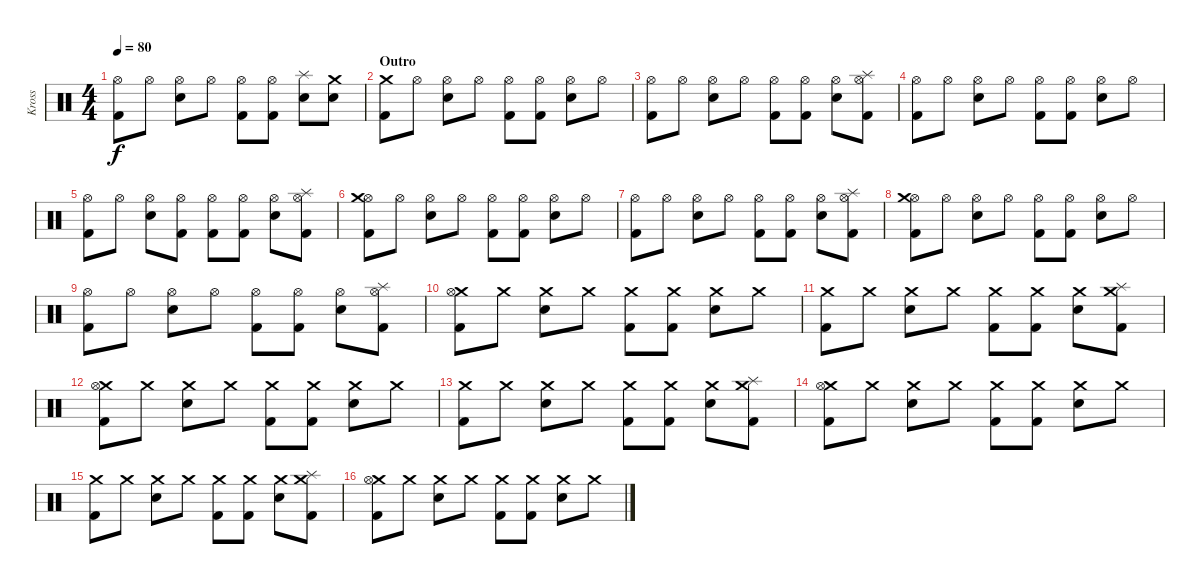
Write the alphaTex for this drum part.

\track ("Kross" "Kross") {instrument percussion}
\staff {score}
\articulation defaults
\ts (4 4)
\tempo 80
\clef neutral
\ks c
("Hi-Hat (open)" "Kick (hit) 2").8{dy f} "Hi-Hat (open)".8 ("Hi-Hat (open)" "Snare (hit) 2").8 "Hi-Hat (open)".8 ("Hi-Hat (open)" "Kick (hit) 2").8 ("Hi-Hat (open)" "Kick (hit) 2").8 ("Splash (hit)" "Snare (hit) 2").8 ("Crash medium (hit)" "Snare (hit) 2").8 |
\section ("" "Outro")
("Crash medium (hit)" "Kick (hit) 2").8 "Hi-Hat (open)".8 ("Hi-Hat (open)" "Snare (hit) 2").8 "Hi-Hat (open)".8 ("Hi-Hat (open)" "Kick (hit) 2").8 ("Hi-Hat (open)" "Kick (hit) 2").8 ("Hi-Hat (open)" "Snare (hit) 2").8 "Hi-Hat (open)".8 |
("Hi-Hat (open)" "Kick (hit) 2").8 "Hi-Hat (open)".8 ("Hi-Hat (open)" "Snare (hit) 2").8 "Hi-Hat (open)".8 ("Hi-Hat (open)" "Kick (hit) 2").8 ("Hi-Hat (open)" "Kick (hit) 2").8 ("Hi-Hat (open)" "Snare (hit) 2").8 ("Hi-Hat (open)" "Splash (hit)" "Kick (hit) 2").8 |
("Hi-Hat (open)" "Kick (hit) 2").8 "Hi-Hat (open)".8 ("Hi-Hat (open)" "Snare (hit) 2").8 "Hi-Hat (open)".8 ("Hi-Hat (open)" "Kick (hit) 2").8 ("Hi-Hat (open)" "Kick (hit) 2").8 ("Hi-Hat (open)" "Snare (hit) 2").8 "Hi-Hat (open)".8 |
("Hi-Hat (open)" "Kick (hit) 2").8 "Hi-Hat (open)".8 ("Hi-Hat (open)" "Snare (hit) 2").8 ("Hi-Hat (open)" "Kick (hit) 2").8 ("Hi-Hat (open)" "Kick (hit) 2").8 ("Hi-Hat (open)" "Kick (hit) 2").8 ("Hi-Hat (open)" "Snare (hit) 2").8 ("Hi-Hat (open)" "Splash (hit)" "Kick (hit) 2").8 |
("Hi-Hat (open)" "Crash medium (hit)" "Kick (hit) 2").8 "Hi-Hat (open)".8 ("Hi-Hat (open)" "Snare (hit) 2").8 "Hi-Hat (open)".8 ("Hi-Hat (open)" "Kick (hit) 2").8 ("Hi-Hat (open)" "Kick (hit) 2").8 ("Hi-Hat (open)" "Snare (hit) 2").8 "Hi-Hat (open)".8 |
("Hi-Hat (open)" "Kick (hit) 2").8 "Hi-Hat (open)".8 ("Hi-Hat (open)" "Snare (hit) 2").8 "Hi-Hat (open)".8 ("Hi-Hat (open)" "Kick (hit) 2").8 ("Hi-Hat (open)" "Kick (hit) 2").8 ("Hi-Hat (open)" "Snare (hit) 2").8 ("Hi-Hat (open)" "Splash (hit)" "Kick (hit) 2").8 |
("Hi-Hat (open)" "Crash medium (hit)" "Kick (hit) 2").8 "Hi-Hat (open)".8 ("Hi-Hat (open)" "Snare (hit) 2").8 "Hi-Hat (open)".8 ("Hi-Hat (open)" "Kick (hit) 2").8 ("Hi-Hat (open)" "Kick (hit) 2").8 ("Hi-Hat (open)" "Snare (hit) 2").8 "Hi-Hat (open)".8 |
("Hi-Hat (open)" "Kick (hit) 2").8 "Hi-Hat (open)".8 ("Hi-Hat (open)" "Snare (hit) 2").8 "Hi-Hat (open)".8 ("Hi-Hat (open)" "Kick (hit) 2").8 ("Hi-Hat (open)" "Kick (hit) 2").8 ("Hi-Hat (open)" "Snare (hit) 2").8 ("Hi-Hat (open)" "Splash (hit)" "Kick (hit) 2").8 |
("Crash medium (hit)" "Hi-Hat (open)" "Kick (hit) 2").8 "Crash medium (hit)".8 ("Crash medium (hit)" "Snare (hit) 2").8 "Crash medium (hit)".8 ("Crash medium (hit)" "Kick (hit) 2").8 ("Crash medium (hit)" "Kick (hit) 2").8 ("Crash medium (hit)" "Snare (hit) 2").8 "Crash medium (hit)".8 |
("Crash medium (hit)" "Kick (hit) 2").8 "Crash medium (hit)".8 ("Crash medium (hit)" "Snare (hit) 2").8 "Crash medium (hit)".8 ("Crash medium (hit)" "Kick (hit) 2").8 ("Crash medium (hit)" "Kick (hit) 2").8 ("Crash medium (hit)" "Snare (hit) 2").8 ("Crash medium (hit)" "Splash (hit)" "Kick (hit) 2").8 |
("Crash medium (hit)" "Hi-Hat (open)" "Kick (hit) 2").8 "Crash medium (hit)".8 ("Crash medium (hit)" "Snare (hit) 2").8 "Crash medium (hit)".8 ("Crash medium (hit)" "Kick (hit) 2").8 ("Crash medium (hit)" "Kick (hit) 2").8 ("Crash medium (hit)" "Snare (hit) 2").8 "Crash medium (hit)".8 |
("Crash medium (hit)" "Kick (hit) 2").8 "Crash medium (hit)".8 ("Crash medium (hit)" "Snare (hit) 2").8 "Crash medium (hit)".8 ("Crash medium (hit)" "Kick (hit) 2").8 ("Crash medium (hit)" "Kick (hit) 2").8 ("Crash medium (hit)" "Snare (hit) 2").8 ("Crash medium (hit)" "Splash (hit)" "Kick (hit) 2").8 |
("Crash medium (hit)" "Hi-Hat (open)" "Kick (hit) 2").8 "Crash medium (hit)".8 ("Crash medium (hit)" "Snare (hit) 2").8 "Crash medium (hit)".8 ("Crash medium (hit)" "Kick (hit) 2").8 ("Crash medium (hit)" "Kick (hit) 2").8 ("Crash medium (hit)" "Snare (hit) 2").8 "Crash medium (hit)".8 |
("Crash medium (hit)" "Kick (hit) 2").8 "Crash medium (hit)".8 ("Crash medium (hit)" "Snare (hit) 2").8 "Crash medium (hit)".8 ("Crash medium (hit)" "Kick (hit) 2").8 ("Crash medium (hit)" "Kick (hit) 2").8 ("Crash medium (hit)" "Snare (hit) 2").8 ("Crash medium (hit)" "Splash (hit)" "Kick (hit) 2").8 |
("Crash medium (hit)" "Hi-Hat (open)" "Kick (hit) 2").8 "Crash medium (hit)".8 ("Crash medium (hit)" "Snare (hit) 2").8 "Crash medium (hit)".8 ("Crash medium (hit)" "Kick (hit) 2").8 ("Crash medium (hit)" "Kick (hit) 2").8 ("Crash medium (hit)" "Snare (hit) 2").8 "Crash medium (hit)".8
